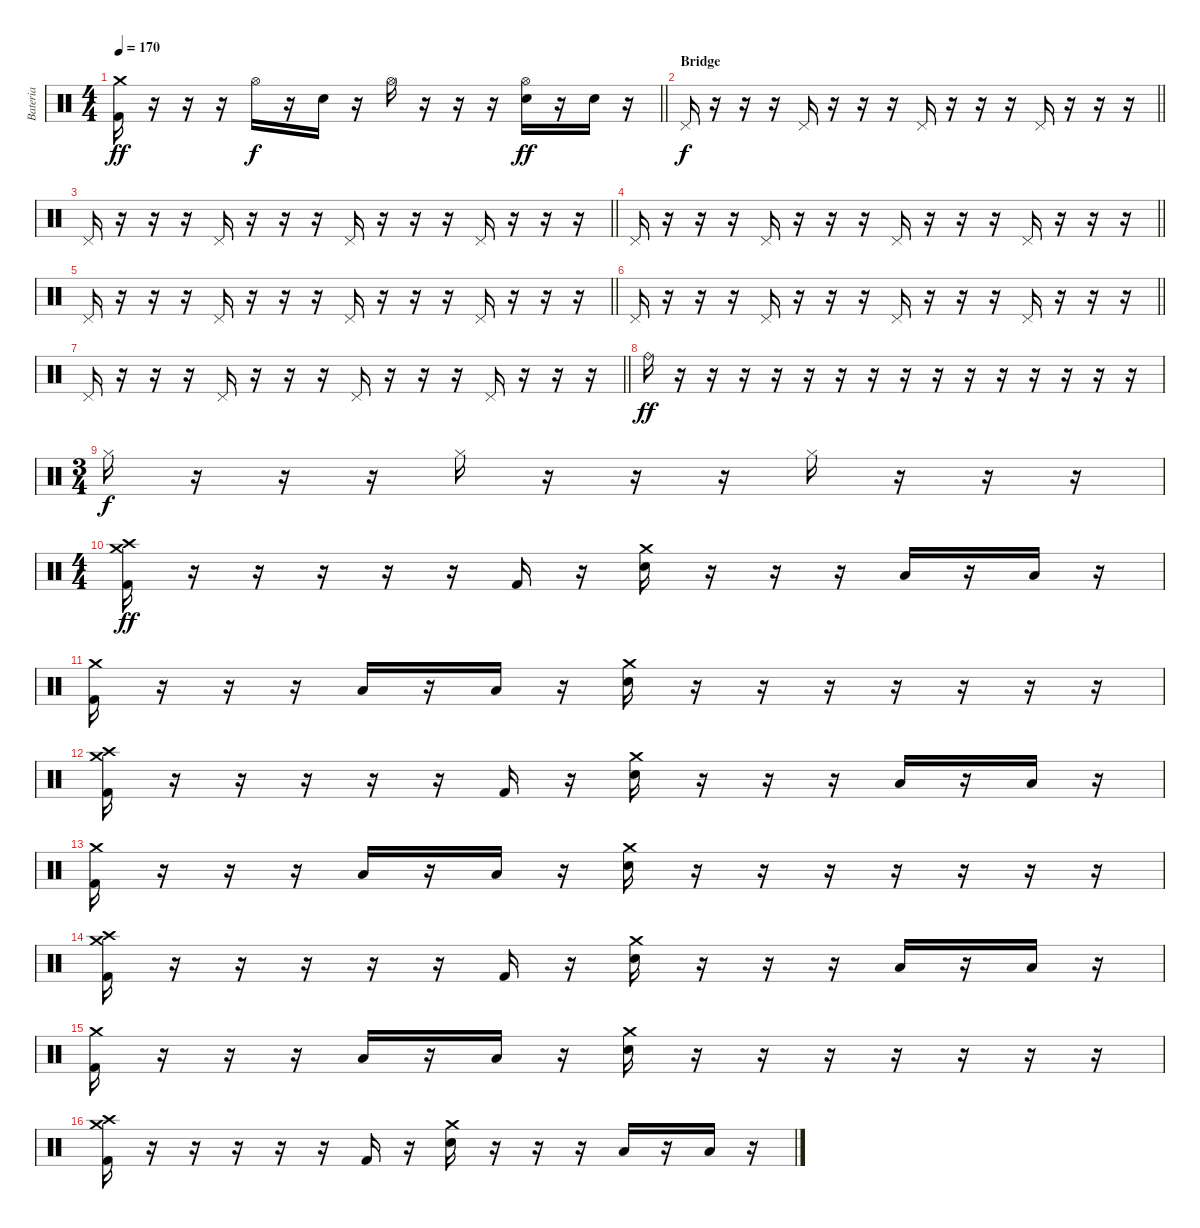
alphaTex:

\track ("Bateria" "Bateria") {instrument percussion}
\staff {score}
\articulation defaults
\ts (4 4)
\tempo 170
\clef neutral
\barLineRight lightlight
\ks c
("Crash medium (hit)" "Kick (hit) 2").16{dy ff} r.16 r.16 r.16 "Hi-Hat (open)".16{dy f} r.16 "Electric Snare (hit)".16 r.16 "Hi-Hat (open)".16 r.16 r.16 r.16 ("Hi-Hat (open)" "Electric Snare (hit)").16{dy ff} r.16 "Electric Snare (hit)".16 r.16 |
\section ("" "Bridge")
\barLineRight lightlight "Pedal Hi-Hat (hit)".16{dy f}
r.16 r.16 r.16 "Pedal Hi-Hat (hit)".16 r.16 r.16 r.16 "Pedal Hi-Hat (hit)".16 r.16 r.16 r.16 "Pedal Hi-Hat (hit)".16 r.16 r.16 r.16 |
\barLineRight lightlight "Pedal Hi-Hat (hit)".16
r.16 r.16 r.16 "Pedal Hi-Hat (hit)".16 r.16 r.16 r.16 "Pedal Hi-Hat (hit)".16 r.16 r.16 r.16 "Pedal Hi-Hat (hit)".16 r.16 r.16 r.16 |
\barLineRight lightlight "Pedal Hi-Hat (hit)".16
r.16 r.16 r.16 "Pedal Hi-Hat (hit)".16 r.16 r.16 r.16 "Pedal Hi-Hat (hit)".16 r.16 r.16 r.16 "Pedal Hi-Hat (hit)".16 r.16 r.16 r.16 |
\barLineRight lightlight "Pedal Hi-Hat (hit)".16
r.16 r.16 r.16 "Pedal Hi-Hat (hit)".16 r.16 r.16 r.16 "Pedal Hi-Hat (hit)".16 r.16 r.16 r.16 "Pedal Hi-Hat (hit)".16 r.16 r.16 r.16 |
\barLineRight lightlight "Pedal Hi-Hat (hit)".16
r.16 r.16 r.16 "Pedal Hi-Hat (hit)".16 r.16 r.16 r.16 "Pedal Hi-Hat (hit)".16 r.16 r.16 r.16 "Pedal Hi-Hat (hit)".16 r.16 r.16 r.16 |
\barLineRight lightlight "Pedal Hi-Hat (hit)".16
r.16 r.16 r.16 "Pedal Hi-Hat (hit)".16 r.16 r.16 r.16 "Pedal Hi-Hat (hit)".16 r.16 r.16 r.16 "Pedal Hi-Hat (hit)".16 r.16 r.16 r.16 |
"Ride (bell)".16{dy ff} r.16 r.16 r.16 r.16 r.16 r.16 r.16 r.16 r.16 r.16 r.16 r.16 r.16 r.16 r.16 |
\ts (3 4)
"Hi-Hat (closed)".16{dy f} r.16 r.16 r.16 "Hi-Hat (closed)".16 r.16 r.16 r.16 "Hi-Hat (closed)".16 r.16 r.16 r.16 |
\ts (4 4)
("Crash medium (hit)" "Crash high (hit)" "Kick (hit) 2").16{dy ff} r.16 r.16 r.16 r.16 r.16 "Kick (hit) 2".16 r.16 ("Crash medium (hit)" "Electric Snare (hit)").16 r.16 r.16 r.16 "Low Tom (hit)".16 r.16 "Low Floor Tom (hit)".16 r.16 |
("Crash medium (hit)" "Kick (hit) 2").16 r.16 r.16 r.16 "Low Tom (hit)".16 r.16 "Low Floor Tom (hit)".16 r.16 ("Crash medium (hit)" "Electric Snare (hit)").16 r.16 r.16 r.16 r.16 r.16 r.16 r.16 |
("Crash medium (hit)" "Crash high (hit)" "Kick (hit) 2").16 r.16 r.16 r.16 r.16 r.16 "Kick (hit) 2".16 r.16 ("Crash medium (hit)" "Electric Snare (hit)").16 r.16 r.16 r.16 "Low Tom (hit)".16 r.16 "Low Floor Tom (hit)".16 r.16 |
("Crash medium (hit)" "Kick (hit) 2").16 r.16 r.16 r.16 "Low Tom (hit)".16 r.16 "Low Floor Tom (hit)".16 r.16 ("Crash medium (hit)" "Electric Snare (hit)").16 r.16 r.16 r.16 r.16 r.16 r.16 r.16 |
("Crash medium (hit)" "Crash high (hit)" "Kick (hit) 2").16 r.16 r.16 r.16 r.16 r.16 "Kick (hit) 2".16 r.16 ("Crash medium (hit)" "Electric Snare (hit)").16 r.16 r.16 r.16 "Low Tom (hit)".16 r.16 "Low Floor Tom (hit)".16 r.16 |
("Crash medium (hit)" "Kick (hit) 2").16 r.16 r.16 r.16 "Low Tom (hit)".16 r.16 "Low Floor Tom (hit)".16 r.16 ("Crash medium (hit)" "Electric Snare (hit)").16 r.16 r.16 r.16 r.16 r.16 r.16 r.16 |
("Crash medium (hit)" "Crash high (hit)" "Kick (hit) 2").16 r.16 r.16 r.16 r.16 r.16 "Kick (hit) 2".16 r.16 ("Crash medium (hit)" "Electric Snare (hit)").16 r.16 r.16 r.16 "Low Tom (hit)".16 r.16 "Low Floor Tom (hit)".16 r.16
